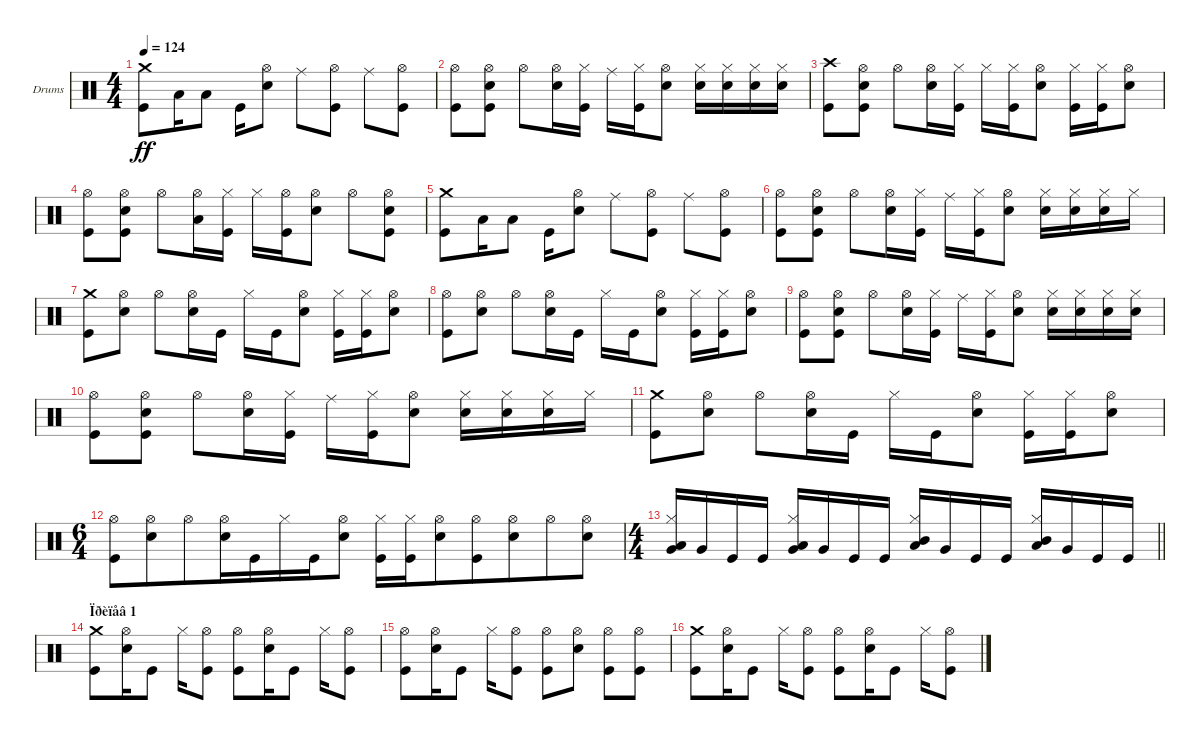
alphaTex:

\bracketExtendMode groupsimilarinstruments
\firstSystemTrackNameOrientation horizontal
\otherSystemsTrackNameOrientation horizontal
\track ("Барабаны" "Drums") {instrument percussion}
\staff {score}
\articulation defaults
\ts (4 4)
\tempo 124
\clef neutral
\ks c
("Crash medium (hit)" "Kick (hit)").8{dy ff} "Low Tom (hit)".16 "Low Tom (hit)".8 "Kick (hit)".16 ("Hi-Hat (open)" "Snare (hit) 2").8 "Ride (middle)".8 ("Kick (hit)" "Hi-Hat (open)").8 "Ride (middle)".8 ("Kick (hit)" "Hi-Hat (open)").8 |
("Hi-Hat (open)" "Kick (hit)").8 ("Hi-Hat (open)" "Snare (hit) 2" "Kick (hit)").8 "Hi-Hat (open)".8 ("Snare (hit) 2" "Hi-Hat (open)").16 ("Hi-Hat (closed)" "Kick (hit)").16 "Ride (middle)".16 ("Hi-Hat (closed)" "Kick (hit)").16 ("Hi-Hat (open)" "Snare (hit) 2").8 ("Hi-Hat (closed)" "Snare (hit) 2").16 ("Hi-Hat (closed)" "Snare (hit) 2").16 ("Hi-Hat (closed)" "Snare (hit) 2").16 ("Hi-Hat (closed)" "Snare (hit) 2").16 |
("Crash high (hit)" "Kick (hit)").8 ("Hi-Hat (open)" "Snare (hit) 2" "Kick (hit)").8 "Hi-Hat (open)".8 ("Snare (hit) 2" "Hi-Hat (open)").16 ("Hi-Hat (closed)" "Kick (hit)").16 "Hi-Hat (closed)".16 ("Hi-Hat (closed)" "Kick (hit)").16 ("Hi-Hat (open)" "Snare (hit) 2").8 ("Hi-Hat (closed)" "Kick (hit)").16 ("Hi-Hat (closed)" "Kick (hit)").16 ("Hi-Hat (open)" "Snare (hit) 2").8 |
("Hi-Hat (open)" "Kick (hit)").8 ("Hi-Hat (open)" "Snare (hit) 2" "Kick (hit)").8 "Hi-Hat (open)".8 ("Hi-Hat (open)" "Low Tom (hit)").16 ("Hi-Hat (closed)" "Kick (hit)").16 "Hi-Hat (closed)".16 ("Hi-Hat (open)" "Kick (hit)").16 ("Hi-Hat (open)" "Snare (hit) 2").8 "Hi-Hat (open)".8 ("Hi-Hat (open)" "Snare (hit) 2" "Kick (hit)").8 |
("Crash medium (hit)" "Kick (hit)").8 "Low Tom (hit)".16 "Low Tom (hit)".8 "Kick (hit)".16 ("Hi-Hat (open)" "Snare (hit) 2").8 "Ride (middle)".8 ("Kick (hit)" "Hi-Hat (open)").8 "Ride (middle)".8 ("Kick (hit)" "Hi-Hat (open)").8 |
("Hi-Hat (open)" "Kick (hit)").8 ("Hi-Hat (open)" "Snare (hit) 2" "Kick (hit)").8 "Hi-Hat (open)".8 ("Snare (hit) 2" "Hi-Hat (open)").16 ("Hi-Hat (closed)" "Kick (hit)").16 "Ride (middle)".16 ("Hi-Hat (closed)" "Kick (hit)").16 ("Hi-Hat (open)" "Snare (hit) 2").8 ("Hi-Hat (closed)" "Snare (hit) 2").16 ("Hi-Hat (closed)" "Snare (hit) 2").16 ("Hi-Hat (closed)" "Snare (hit) 2").16 "Hi-Hat (closed)".16 |
("Crash medium (hit)" "Kick (hit)").8 ("Hi-Hat (open)" "Snare (hit) 2").8 "Hi-Hat (open)".8 ("Hi-Hat (open)" "Snare (hit) 2").16 "Kick (hit)".16 "Hi-Hat (closed)".16 "Kick (hit)".16 ("Hi-Hat (open)" "Snare (hit) 2").8 ("Hi-Hat (closed)" "Kick (hit)").16 ("Hi-Hat (closed)" "Kick (hit)").16 ("Hi-Hat (open)" "Snare (hit) 2").8 |
("Hi-Hat (open)" "Kick (hit)").8 ("Hi-Hat (open)" "Snare (hit) 2").8 "Hi-Hat (open)".8 ("Hi-Hat (open)" "Snare (hit) 2").16 "Kick (hit)".16 "Hi-Hat (closed)".16 "Kick (hit)".16 ("Hi-Hat (open)" "Snare (hit) 2").8 ("Hi-Hat (closed)" "Kick (hit)").16 ("Hi-Hat (closed)" "Kick (hit)").16 ("Hi-Hat (open)" "Snare (hit) 2").8 |
("Hi-Hat (open)" "Kick (hit)").8 ("Hi-Hat (open)" "Snare (hit) 2" "Kick (hit)").8 "Hi-Hat (open)".8 ("Snare (hit) 2" "Hi-Hat (open)").16 ("Hi-Hat (closed)" "Kick (hit)").16 "Ride (middle)".16 ("Hi-Hat (closed)" "Kick (hit)").16 ("Hi-Hat (open)" "Snare (hit) 2").8 ("Hi-Hat (closed)" "Snare (hit) 2").16 ("Hi-Hat (closed)" "Snare (hit) 2").16 ("Hi-Hat (closed)" "Snare (hit) 2").16 ("Hi-Hat (closed)" "Snare (hit) 2").16 |
("Hi-Hat (open)" "Kick (hit)").8 ("Hi-Hat (open)" "Snare (hit) 2" "Kick (hit)").8 "Hi-Hat (open)".8 ("Snare (hit) 2" "Hi-Hat (open)").16 ("Hi-Hat (closed)" "Kick (hit)").16 "Ride (middle)".16 ("Hi-Hat (closed)" "Kick (hit)").16 ("Hi-Hat (open)" "Snare (hit) 2").8 ("Hi-Hat (closed)" "Snare (hit) 2").16 ("Hi-Hat (closed)" "Snare (hit) 2").16 ("Hi-Hat (closed)" "Snare (hit) 2").16 "Hi-Hat (closed)".16 |
("Crash medium (hit)" "Kick (hit)").8 ("Hi-Hat (open)" "Snare (hit) 2").8 "Hi-Hat (open)".8 ("Hi-Hat (open)" "Snare (hit) 2").16 "Kick (hit)".16 "Hi-Hat (closed)".16 "Kick (hit)".16 ("Hi-Hat (open)" "Snare (hit) 2").8 ("Hi-Hat (closed)" "Kick (hit)").16 ("Hi-Hat (closed)" "Kick (hit)").16 ("Hi-Hat (open)" "Snare (hit) 2").8 |
\ts (6 4)
\beaming (8 6 6)
("Hi-Hat (open)" "Kick (hit)").8 ("Hi-Hat (open)" "Snare (hit) 2").8 "Hi-Hat (open)".8 ("Hi-Hat (open)" "Snare (hit) 2").16 "Kick (hit)".16 "Hi-Hat (closed)".16 "Kick (hit)".16 ("Hi-Hat (open)" "Snare (hit) 2").8 ("Hi-Hat (closed)" "Kick (hit)").16 ("Hi-Hat (closed)" "Kick (hit)").16 ("Hi-Hat (open)" "Snare (hit) 2").8 ("Hi-Hat (open)" "Kick (hit)").8 ("Hi-Hat (open)" "Snare (hit) 2").8 "Hi-Hat (open)".8 ("Hi-Hat (open)" "Snare (hit) 2").8 |
\ts (4 4)
\beaming (8 2 2 2 2)
\barLineRight lightlight
("Hi-Hat (closed)" "Very Low Tom (hit)" "Low Tom (hit)").16 "Very Low Tom (hit)".16 "Kick (hit)".16 "Kick (hit)".16 ("Hi-Hat (closed)" "Very Low Tom (hit)" "Low Tom (hit)").16 "Very Low Tom (hit)".16 "Kick (hit)".16 "Kick (hit)".16 ("Hi-Hat (closed)" "Mid Tom (hit)" "Low Tom (hit)").16 "Very Low Tom (hit)".16 "Kick (hit)".16 "Kick (hit)".16 ("Hi-Hat (closed)" "Low Tom (hit)" "Mid Tom (hit)").16 "Very Low Tom (hit)".16 "Kick (hit)".16 "Kick (hit)".16 |
\section ("" "Ïðèïåâ 1")
("Crash medium (hit)" "Kick (hit)").8 ("Hi-Hat (open)" "Snare (hit) 2").16 "Kick (hit)".8 "Hi-Hat (closed)".16 ("Hi-Hat (open)" "Kick (hit)").8 ("Hi-Hat (open)" "Kick (hit)").8 ("Hi-Hat (open)" "Snare (hit) 2").16 "Kick (hit)".8 "Hi-Hat (closed)".16 ("Kick (hit)" "Hi-Hat (open)").8 |
("Hi-Hat (open)" "Kick (hit)").8 ("Hi-Hat (open)" "Snare (hit) 2").16 "Kick (hit)".8 "Hi-Hat (closed)".16 ("Hi-Hat (open)" "Kick (hit)").8 ("Kick (hit)" "Hi-Hat (open)").8 ("Hi-Hat (open)" "Snare (hit) 2").8 ("Hi-Hat (open)" "Kick (hit)").8 ("Hi-Hat (open)" "Kick (hit)").8 |
("Crash medium (hit)" "Kick (hit)").8 ("Hi-Hat (open)" "Snare (hit) 2").16 "Kick (hit)".8 "Hi-Hat (closed)".16 ("Hi-Hat (open)" "Kick (hit)").8 ("Hi-Hat (open)" "Kick (hit)").8 ("Hi-Hat (open)" "Snare (hit) 2").16 "Kick (hit)".8 "Hi-Hat (closed)".16 ("Kick (hit)" "Hi-Hat (open)").8
